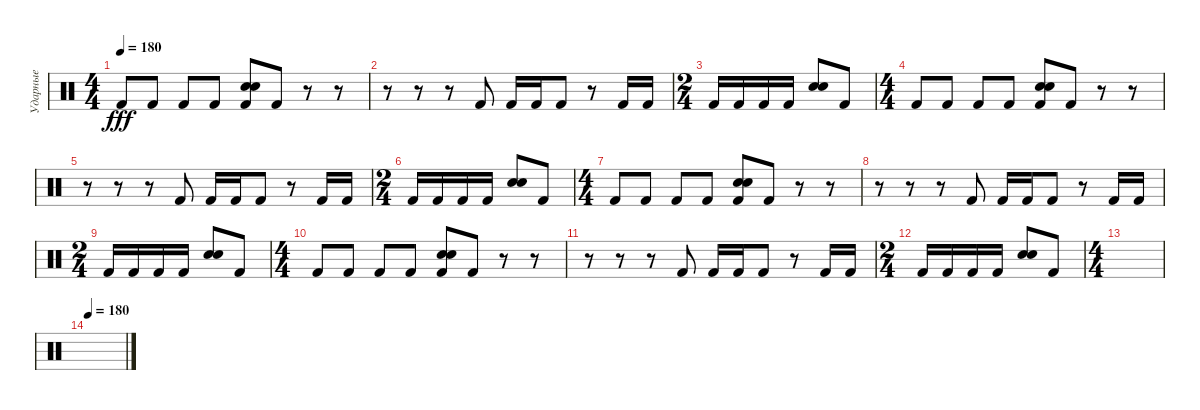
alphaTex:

\track ("Ударные" "Ударные") {instrument percussion}
\staff {score}
\articulation defaults
\ts (4 4)
\tempo 180
\clef neutral
\ks c "Kick (hit) 2".8{dy fff} "Kick (hit) 2".8 "Kick (hit) 2".8 "Kick (hit) 2".8
("Electric Snare (hit)" "Snare (hit) 2" "Kick (hit) 2").8 "Kick (hit) 2".8 r.8 r.8 |
r.8 r.8 r.8 "Kick (hit) 2".8 "Kick (hit) 2".16 "Kick (hit) 2".16 "Kick (hit) 2".8 r.8 "Kick (hit) 2".16 "Kick (hit) 2".16 |
\ts (2 4)
"Kick (hit) 2".16 "Kick (hit) 2".16 "Kick (hit) 2".16 "Kick (hit) 2".16 ("Electric Snare (hit)" "Snare (hit) 2").8 "Kick (hit) 2".8 |
\ts (4 4)
"Kick (hit) 2".8 "Kick (hit) 2".8 "Kick (hit) 2".8 "Kick (hit) 2".8 ("Electric Snare (hit)" "Snare (hit) 2" "Kick (hit) 2").8 "Kick (hit) 2".8 r.8 r.8 |
r.8 r.8 r.8 "Kick (hit) 2".8 "Kick (hit) 2".16 "Kick (hit) 2".16 "Kick (hit) 2".8 r.8 "Kick (hit) 2".16 "Kick (hit) 2".16 |
\ts (2 4)
"Kick (hit) 2".16 "Kick (hit) 2".16 "Kick (hit) 2".16 "Kick (hit) 2".16 ("Electric Snare (hit)" "Snare (hit) 2").8 "Kick (hit) 2".8 |
\ts (4 4)
"Kick (hit) 2".8 "Kick (hit) 2".8 "Kick (hit) 2".8 "Kick (hit) 2".8 ("Electric Snare (hit)" "Snare (hit) 2" "Kick (hit) 2").8 "Kick (hit) 2".8 r.8 r.8 |
r.8 r.8 r.8 "Kick (hit) 2".8 "Kick (hit) 2".16 "Kick (hit) 2".16 "Kick (hit) 2".8 r.8 "Kick (hit) 2".16 "Kick (hit) 2".16 |
\ts (2 4)
"Kick (hit) 2".16 "Kick (hit) 2".16 "Kick (hit) 2".16 "Kick (hit) 2".16 ("Electric Snare (hit)" "Snare (hit) 2").8 "Kick (hit) 2".8 |
\ts (4 4)
"Kick (hit) 2".8 "Kick (hit) 2".8 "Kick (hit) 2".8 "Kick (hit) 2".8 ("Electric Snare (hit)" "Snare (hit) 2" "Kick (hit) 2").8 "Kick (hit) 2".8 r.8 r.8 |
r.8 r.8 r.8 "Kick (hit) 2".8 "Kick (hit) 2".16 "Kick (hit) 2".16 "Kick (hit) 2".8 r.8 "Kick (hit) 2".16 "Kick (hit) 2".16 |
\ts (2 4)
"Kick (hit) 2".16 "Kick (hit) 2".16 "Kick (hit) 2".16 "Kick (hit) 2".16 ("Electric Snare (hit)" "Snare (hit) 2").8 "Kick (hit) 2".8 |
\ts (4 4)
|
\tempo 180
